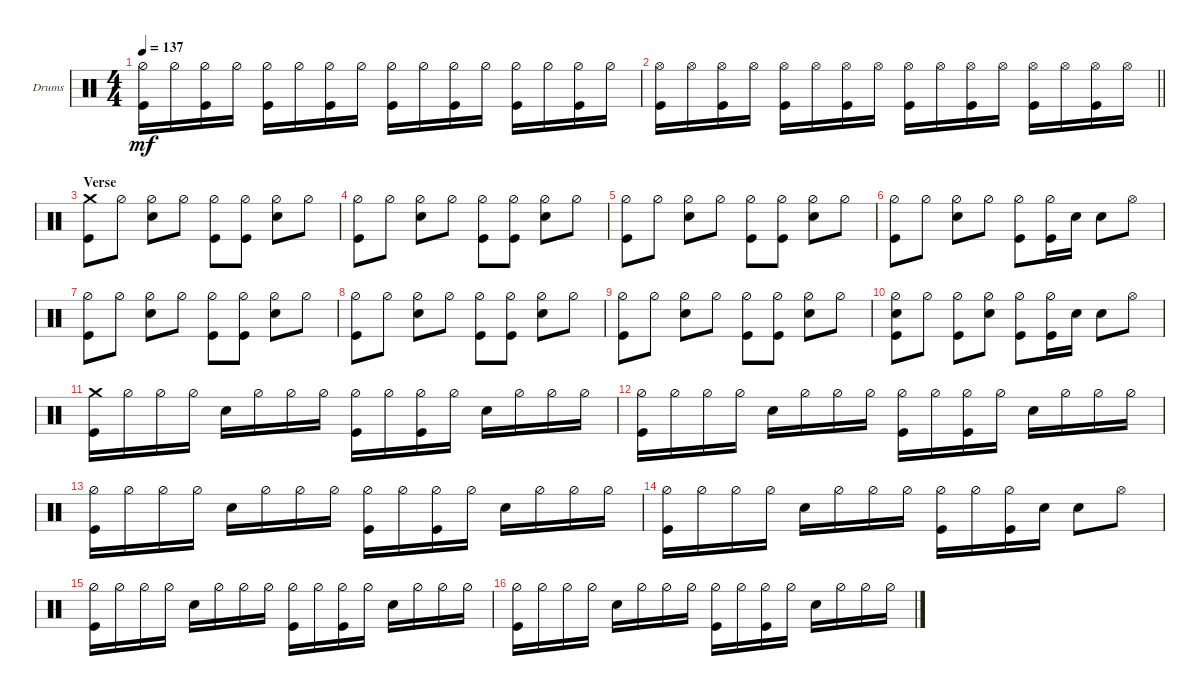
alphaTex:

\bracketExtendMode groupsimilarinstruments
\firstSystemTrackNameOrientation horizontal
\otherSystemsTrackNameOrientation horizontal
\track ("Fabrizio" "Drums") {instrument percussion}
\staff {score}
\articulation defaults
\ts (4 4)
\tempo 137
\clef neutral
\scale
0.333333
\ks c
("Hi-Hat (half)" "Kick (hit)").16{dy mf} "Hi-Hat (half)".16 ("Hi-Hat (half)" "Kick (hit)").16 "Hi-Hat (half)".16 ("Hi-Hat (half)" "Kick (hit)").16 "Hi-Hat (half)".16 ("Hi-Hat (half)" "Kick (hit)").16 "Hi-Hat (half)".16 ("Hi-Hat (half)" "Kick (hit)").16 "Hi-Hat (half)".16 ("Hi-Hat (half)" "Kick (hit)").16 "Hi-Hat (half)".16 ("Hi-Hat (half)" "Kick (hit)").16 "Hi-Hat (half)".16 ("Hi-Hat (half)" "Kick (hit)").16 "Hi-Hat (half)".16 |
\scale
0.333333
\barLineRight lightlight
("Hi-Hat (open)" "Kick (hit)").16 "Hi-Hat (open)".16 ("Hi-Hat (open)" "Kick (hit)").16 "Hi-Hat (open)".16 ("Hi-Hat (open)" "Kick (hit)").16 "Hi-Hat (open)".16 ("Hi-Hat (open)" "Kick (hit)").16 "Hi-Hat (open)".16 ("Kick (hit)" "Hi-Hat (open)").16 "Hi-Hat (open)".16 ("Hi-Hat (open)" "Kick (hit)").16 "Hi-Hat (open)".16 ("Hi-Hat (open)" "Kick (hit)").16 "Hi-Hat (open)".16 ("Hi-Hat (open)" "Kick (hit)").16 "Hi-Hat (open)".16 |
\section ("" "Verse")
\scale
0.333333 ("Kick (hit)" "Crash medium (hit)").8 "Hi-Hat (half)".8 ("Snare (hit) 2" "Hi-Hat (half)").8 "Hi-Hat (half)".8 ("Hi-Hat (half)" "Kick (hit)").8 ("Hi-Hat (half)" "Kick (hit)").8 ("Hi-Hat (half)" "Snare (hit) 2").8 "Hi-Hat (half)".8 |
\scale
0.333333 ("Kick (hit)" "Hi-Hat (half)").8 "Hi-Hat (half)".8 ("Snare (hit) 2" "Hi-Hat (half)").8 "Hi-Hat (half)".8 ("Hi-Hat (half)" "Kick (hit)").8 ("Hi-Hat (half)" "Kick (hit)").8 ("Hi-Hat (half)" "Snare (hit) 2").8 "Hi-Hat (half)".8 |
\scale
0.333333 ("Kick (hit)" "Hi-Hat (half)").8 "Hi-Hat (half)".8 ("Snare (hit) 2" "Hi-Hat (half)").8 "Hi-Hat (half)".8 ("Hi-Hat (half)" "Kick (hit)").8 ("Hi-Hat (half)" "Kick (hit)").8 ("Hi-Hat (half)" "Snare (hit) 2").8 "Hi-Hat (half)".8 |
\scale
0.333333 ("Kick (hit)" "Hi-Hat (half)").8 "Hi-Hat (half)".8 ("Snare (hit) 2" "Hi-Hat (half)").8 "Hi-Hat (half)".8 ("Hi-Hat (half)" "Kick (hit)").8 ("Hi-Hat (half)" "Kick (hit)").16 "Snare (hit) 2".16 "Snare (hit) 2".8 "Hi-Hat (open)".8 |
\scale
0.333333 ("Kick (hit)" "Hi-Hat (half)").8 "Hi-Hat (half)".8 ("Snare (hit) 2" "Hi-Hat (half)").8 "Hi-Hat (half)".8 ("Hi-Hat (half)" "Kick (hit)").8 ("Hi-Hat (half)" "Kick (hit)").8 ("Hi-Hat (half)" "Snare (hit) 2").8 "Hi-Hat (half)".8 |
\scale
0.333333 ("Kick (hit)" "Hi-Hat (half)").8 "Hi-Hat (half)".8 ("Snare (hit) 2" "Hi-Hat (half)").8 "Hi-Hat (half)".8 ("Hi-Hat (half)" "Kick (hit)").8 ("Hi-Hat (half)" "Kick (hit)").8 ("Hi-Hat (half)" "Snare (hit) 2").8 "Hi-Hat (half)".8 |
\scale
0.333333 ("Kick (hit)" "Hi-Hat (half)").8 "Hi-Hat (half)".8 ("Snare (hit) 2" "Hi-Hat (half)").8 "Hi-Hat (half)".8 ("Hi-Hat (half)" "Kick (hit)").8 ("Hi-Hat (half)" "Kick (hit)").8 ("Hi-Hat (half)" "Snare (hit) 2").8 "Hi-Hat (half)".8 |
\scale
0.333333 ("Snare (hit) 2" "Hi-Hat (half)" "Kick (hit)").8 "Hi-Hat (half)".8 ("Kick (hit)" "Hi-Hat (half)").8 ("Snare (hit) 2" "Hi-Hat (half)").8 ("Kick (hit)" "Hi-Hat (half)").8 ("Hi-Hat (half)" "Kick (hit)").16 "Snare (hit) 2".16 "Snare (hit) 2".8 "Hi-Hat (open)".8 |
\scale
0.333333 ("Kick (hit)" "Crash medium (hit)").16 "Hi-Hat (half)".16 "Hi-Hat (half)".16 "Hi-Hat (half)".16 "Snare (hit) 2".16 "Hi-Hat (half)".16 "Hi-Hat (half)".16 "Hi-Hat (half)".16 ("Hi-Hat (half)" "Kick (hit)").16 "Hi-Hat (half)".16 ("Hi-Hat (half)" "Kick (hit)").16 "Hi-Hat (half)".16 "Snare (hit) 2".16 "Hi-Hat (half)".16 "Hi-Hat (half)".16 "Hi-Hat (half)".16 |
\scale
0.333333 ("Kick (hit)" "Hi-Hat (half)").16 "Hi-Hat (half)".16 "Hi-Hat (half)".16 "Hi-Hat (half)".16 "Snare (hit) 2".16 "Hi-Hat (half)".16 "Hi-Hat (half)".16 "Hi-Hat (half)".16 ("Hi-Hat (half)" "Kick (hit)").16 "Hi-Hat (half)".16 ("Hi-Hat (half)" "Kick (hit)").16 "Hi-Hat (half)".16 "Snare (hit) 2".16 "Hi-Hat (half)".16 "Hi-Hat (half)".16 "Hi-Hat (half)".16 |
\scale
0.333333 ("Kick (hit)" "Hi-Hat (half)").16 "Hi-Hat (half)".16 "Hi-Hat (half)".16 "Hi-Hat (half)".16 "Snare (hit) 2".16 "Hi-Hat (half)".16 "Hi-Hat (half)".16 "Hi-Hat (half)".16 ("Hi-Hat (half)" "Kick (hit)").16 "Hi-Hat (half)".16 ("Hi-Hat (half)" "Kick (hit)").16 "Hi-Hat (half)".16 "Snare (hit) 2".16 "Hi-Hat (half)".16 "Hi-Hat (half)".16 "Hi-Hat (half)".16 |
\scale
0.333333 ("Kick (hit)" "Hi-Hat (half)").16 "Hi-Hat (half)".16 "Hi-Hat (half)".16 "Hi-Hat (half)".16 "Snare (hit) 2".16 "Hi-Hat (half)".16 "Hi-Hat (half)".16 "Hi-Hat (half)".16 ("Hi-Hat (half)" "Kick (hit)").16 "Hi-Hat (half)".16 ("Hi-Hat (half)" "Kick (hit)").16 "Snare (hit) 2".16 "Snare (hit) 2".8 "Hi-Hat (open)".8 |
\scale
0.333333 ("Kick (hit)" "Hi-Hat (half)").16 "Hi-Hat (half)".16 "Hi-Hat (half)".16 "Hi-Hat (half)".16 "Snare (hit) 2".16 "Hi-Hat (half)".16 "Hi-Hat (half)".16 "Hi-Hat (half)".16 ("Hi-Hat (half)" "Kick (hit)").16 "Hi-Hat (half)".16 ("Hi-Hat (half)" "Kick (hit)").16 "Hi-Hat (half)".16 "Snare (hit) 2".16 "Hi-Hat (half)".16 "Hi-Hat (half)".16 "Hi-Hat (half)".16 |
\scale
0.333333 ("Kick (hit)" "Hi-Hat (half)").16 "Hi-Hat (half)".16 "Hi-Hat (half)".16 "Hi-Hat (half)".16 "Snare (hit) 2".16 "Hi-Hat (half)".16 "Hi-Hat (half)".16 "Hi-Hat (half)".16 ("Hi-Hat (half)" "Kick (hit)").16 "Hi-Hat (half)".16 ("Hi-Hat (half)" "Kick (hit)").16 "Hi-Hat (half)".16 "Snare (hit) 2".16 "Hi-Hat (half)".16 "Hi-Hat (half)".16 "Hi-Hat (half)".16
